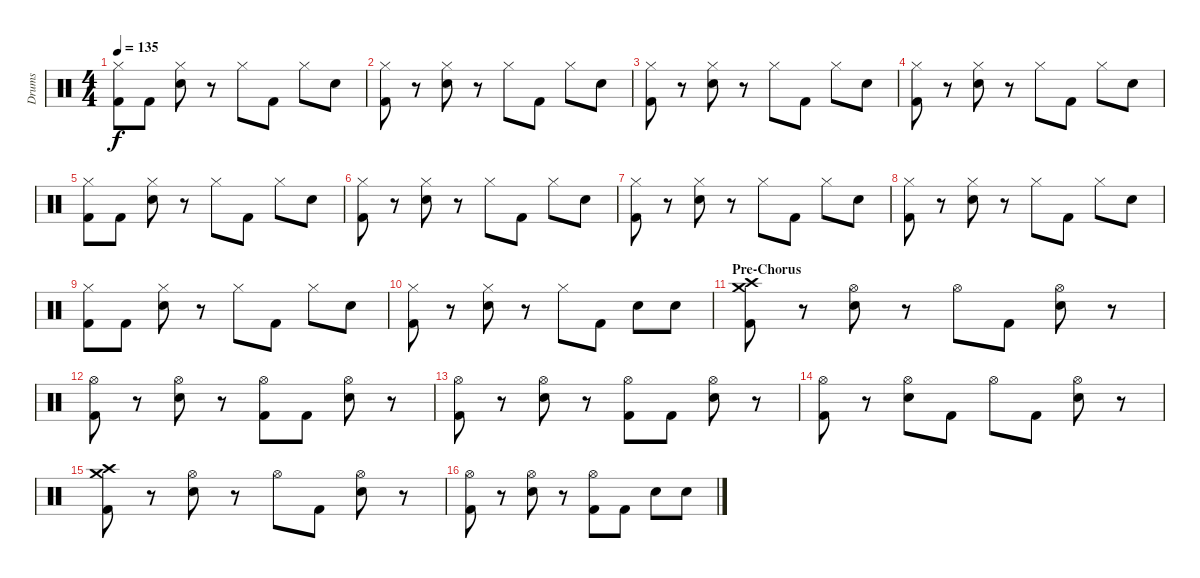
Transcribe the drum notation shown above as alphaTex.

\track ("Drums" "Drums") {instrument percussion}
\staff {score}
\articulation defaults
\ts (4 4)
\tempo 135
\clef neutral
\ks c
("Hi-Hat (closed)" "Kick (hit) 2").8{dy f} "Kick (hit) 2".8 ("Hi-Hat (closed)" "Snare (hit) 2").8 r.8 "Hi-Hat (closed)".8 "Kick (hit) 2".8 "Hi-Hat (closed)".8 "Snare (hit) 2".8 |
("Hi-Hat (closed)" "Kick (hit) 2").8 r.8 ("Hi-Hat (closed)" "Snare (hit) 2").8 r.8 "Hi-Hat (closed)".8 "Kick (hit) 2".8 "Hi-Hat (closed)".8 "Snare (hit) 2".8 |
("Hi-Hat (closed)" "Kick (hit) 2").8 r.8 ("Hi-Hat (closed)" "Snare (hit) 2").8 r.8 "Hi-Hat (closed)".8 "Kick (hit) 2".8 "Hi-Hat (closed)".8 "Snare (hit) 2".8 |
("Hi-Hat (closed)" "Kick (hit) 2").8 r.8 ("Hi-Hat (closed)" "Snare (hit) 2").8 r.8 "Hi-Hat (closed)".8 "Kick (hit) 2".8 "Hi-Hat (closed)".8 "Snare (hit) 2".8 |
("Hi-Hat (closed)" "Kick (hit) 2").8 "Kick (hit) 2".8 ("Hi-Hat (closed)" "Snare (hit) 2").8 r.8 "Hi-Hat (closed)".8 "Kick (hit) 2".8 "Hi-Hat (closed)".8 "Snare (hit) 2".8 |
("Hi-Hat (closed)" "Kick (hit) 2").8 r.8 ("Hi-Hat (closed)" "Snare (hit) 2").8 r.8 "Hi-Hat (closed)".8 "Kick (hit) 2".8 "Hi-Hat (closed)".8 "Snare (hit) 2".8 |
("Hi-Hat (closed)" "Kick (hit) 2").8 r.8 ("Hi-Hat (closed)" "Snare (hit) 2").8 r.8 "Hi-Hat (closed)".8 "Kick (hit) 2".8 "Hi-Hat (closed)".8 "Snare (hit) 2".8 |
("Hi-Hat (closed)" "Kick (hit) 2").8 r.8 ("Hi-Hat (closed)" "Snare (hit) 2").8 r.8 "Hi-Hat (closed)".8 "Kick (hit) 2".8 "Hi-Hat (closed)".8 "Snare (hit) 2".8 |
("Hi-Hat (closed)" "Kick (hit) 2").8 "Kick (hit) 2".8 ("Hi-Hat (closed)" "Snare (hit) 2").8 r.8 "Hi-Hat (closed)".8 "Kick (hit) 2".8 "Hi-Hat (closed)".8 "Snare (hit) 2".8 |
("Hi-Hat (closed)" "Kick (hit) 2").8 r.8 ("Hi-Hat (closed)" "Snare (hit) 2").8 r.8 "Hi-Hat (closed)".8 "Kick (hit) 2".8 "Snare (hit) 2".8 "Snare (hit) 2".8 |
\section ("" "Pre-Chorus")
("Crash medium (hit)" "Crash high (hit)" "Kick (hit) 2").8 r.8 ("Hi-Hat (open)" "Snare (hit) 2").8 r.8 "Hi-Hat (open)".8 "Kick (hit) 2".8 ("Hi-Hat (open)" "Snare (hit) 2").8 r.8 |
("Hi-Hat (open)" "Kick (hit) 2").8 r.8 ("Hi-Hat (open)" "Snare (hit) 2").8 r.8 ("Hi-Hat (open)" "Kick (hit) 2").8 "Kick (hit) 2".8 ("Hi-Hat (open)" "Snare (hit) 2").8 r.8 |
("Hi-Hat (open)" "Kick (hit) 2").8 r.8 ("Hi-Hat (open)" "Snare (hit) 2").8 r.8 ("Hi-Hat (open)" "Kick (hit) 2").8 "Kick (hit) 2".8 ("Hi-Hat (open)" "Snare (hit) 2").8 r.8 |
("Hi-Hat (open)" "Kick (hit) 2").8 r.8 ("Hi-Hat (open)" "Snare (hit) 2").8 "Kick (hit) 2".8 "Hi-Hat (open)".8 "Kick (hit) 2".8 ("Hi-Hat (open)" "Snare (hit) 2").8 r.8 |
("Crash medium (hit)" "Crash high (hit)" "Kick (hit) 2").8 r.8 ("Hi-Hat (open)" "Snare (hit) 2").8 r.8 "Hi-Hat (open)".8 "Kick (hit) 2".8 ("Hi-Hat (open)" "Snare (hit) 2").8 r.8 |
("Hi-Hat (open)" "Kick (hit) 2").8 r.8 ("Hi-Hat (open)" "Snare (hit) 2").8 r.8 ("Hi-Hat (open)" "Kick (hit) 2").8 "Kick (hit) 2".8 "Snare (hit) 2".8 "Snare (hit) 2".8
